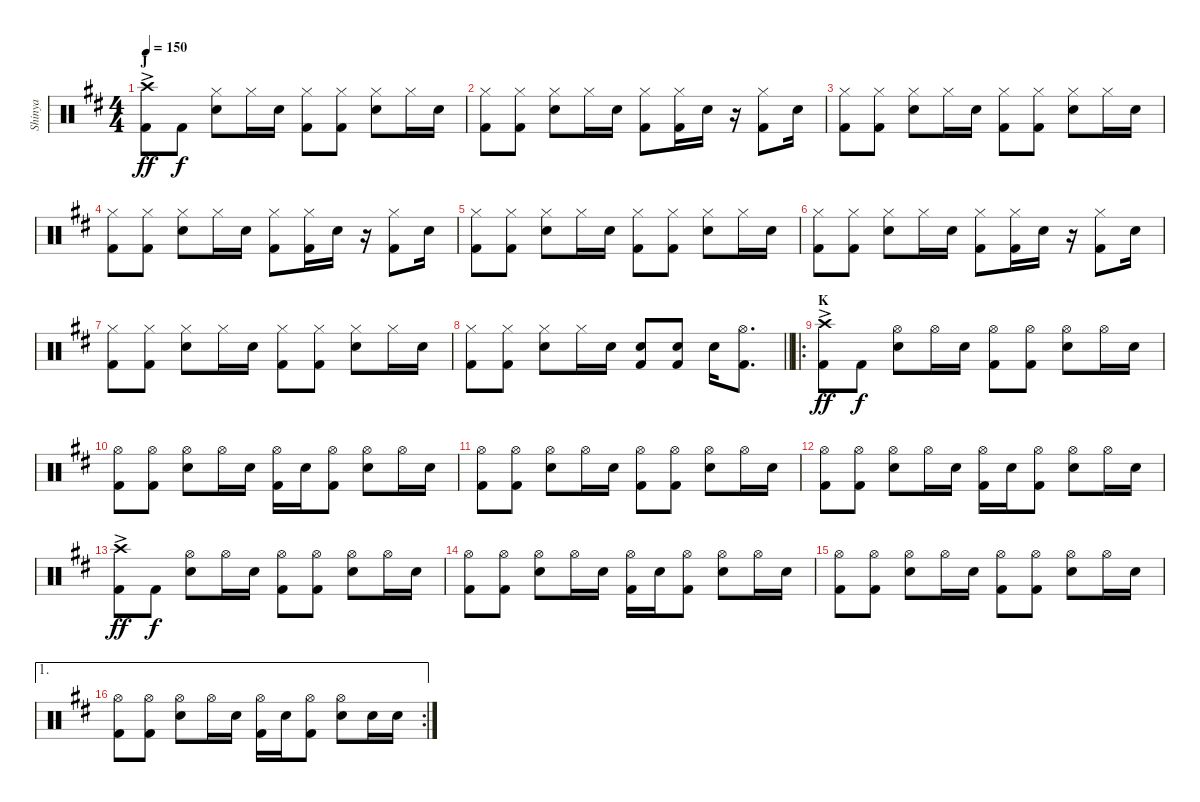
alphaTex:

\track ("Shinya" "Shinya") {instrument percussion}
\staff {score}
\articulation defaults
\ts (4 4)
\section ("" "J")
\tempo 150
\clef neutral
\ks d
("Crash high (hit)"{ac} "Kick (hit) 2").8{dy ff} "Kick (hit) 2".8{dy f} ("Hi-Hat (closed)" "Snare (hit) 2").8 "Hi-Hat (closed)".16 "Snare (hit) 2".16 ("Hi-Hat (closed)" "Kick (hit) 2").8 ("Hi-Hat (closed)" "Kick (hit) 2").8 ("Hi-Hat (closed)" "Snare (hit) 2").8 "Hi-Hat (closed)".16 "Snare (hit) 2".16 |
("Hi-Hat (closed)" "Kick (hit) 2").8 ("Hi-Hat (closed)" "Kick (hit) 2").8 ("Hi-Hat (closed)" "Snare (hit) 2").8 "Hi-Hat (closed)".16 "Snare (hit) 2".16 ("Hi-Hat (closed)" "Kick (hit) 2").8 ("Hi-Hat (closed)" "Kick (hit) 2").16 "Snare (hit) 2".16 r.16 ("Hi-Hat (closed)" "Kick (hit) 2").8 "Snare (hit) 2".16 |
("Hi-Hat (closed)" "Kick (hit) 2").8 ("Hi-Hat (closed)" "Kick (hit) 2").8 ("Hi-Hat (closed)" "Snare (hit) 2").8 "Hi-Hat (closed)".16 "Snare (hit) 2".16 ("Hi-Hat (closed)" "Kick (hit) 2").8 ("Hi-Hat (closed)" "Kick (hit) 2").8 ("Hi-Hat (closed)" "Snare (hit) 2").8 "Hi-Hat (closed)".16 "Snare (hit) 2".16 |
("Hi-Hat (closed)" "Kick (hit) 2").8 ("Hi-Hat (closed)" "Kick (hit) 2").8 ("Hi-Hat (closed)" "Snare (hit) 2").8 "Hi-Hat (closed)".16 "Snare (hit) 2".16 ("Hi-Hat (closed)" "Kick (hit) 2").8 ("Hi-Hat (closed)" "Kick (hit) 2").16 "Snare (hit) 2".16 r.16 ("Hi-Hat (closed)" "Kick (hit) 2").8 "Snare (hit) 2".16 |
("Hi-Hat (closed)" "Kick (hit) 2").8 ("Hi-Hat (closed)" "Kick (hit) 2").8 ("Hi-Hat (closed)" "Snare (hit) 2").8 "Hi-Hat (closed)".16 "Snare (hit) 2".16 ("Hi-Hat (closed)" "Kick (hit) 2").8 ("Hi-Hat (closed)" "Kick (hit) 2").8 ("Hi-Hat (closed)" "Snare (hit) 2").8 "Hi-Hat (closed)".16 "Snare (hit) 2".16 |
("Hi-Hat (closed)" "Kick (hit) 2").8 ("Hi-Hat (closed)" "Kick (hit) 2").8 ("Hi-Hat (closed)" "Snare (hit) 2").8 "Hi-Hat (closed)".16 "Snare (hit) 2".16 ("Hi-Hat (closed)" "Kick (hit) 2").8 ("Hi-Hat (closed)" "Kick (hit) 2").16 "Snare (hit) 2".16 r.16 ("Hi-Hat (closed)" "Kick (hit) 2").8 "Snare (hit) 2".16 |
("Hi-Hat (closed)" "Kick (hit) 2").8 ("Hi-Hat (closed)" "Kick (hit) 2").8 ("Hi-Hat (closed)" "Snare (hit) 2").8 "Hi-Hat (closed)".16 "Snare (hit) 2".16 ("Hi-Hat (closed)" "Kick (hit) 2").8 ("Hi-Hat (closed)" "Kick (hit) 2").8 ("Hi-Hat (closed)" "Snare (hit) 2").8 "Hi-Hat (closed)".16 "Snare (hit) 2".16 |
\barLineRight lightlight
("Hi-Hat (closed)" "Kick (hit) 2").8 ("Hi-Hat (closed)" "Kick (hit) 2").8 ("Hi-Hat (closed)" "Snare (hit) 2").8 "Hi-Hat (closed)".16 "Snare (hit) 2".16 ("Snare (hit) 2" "Kick (hit) 2").8 ("Snare (hit) 2" "Kick (hit) 2").8 "Snare (hit) 2".16 ("Hi-Hat (open)" "Kick (hit) 2").8{d} |
\ro
\section ("" "K")
("Crash high (hit)"{ac} "Kick (hit) 2").8{dy ff} "Kick (hit) 2".8{dy f} ("Hi-Hat (open)" "Snare (hit) 2").8 "Hi-Hat (open)".16 "Snare (hit) 2".16 ("Hi-Hat (open)" "Kick (hit) 2").8 ("Hi-Hat (open)" "Kick (hit) 2").8 ("Hi-Hat (open)" "Snare (hit) 2").8 "Hi-Hat (open)".16 "Snare (hit) 2".16 |
("Hi-Hat (open)" "Kick (hit) 2").8 ("Hi-Hat (open)" "Kick (hit) 2").8 ("Hi-Hat (open)" "Snare (hit) 2").8 "Hi-Hat (open)".16 "Snare (hit) 2".16 ("Hi-Hat (open)" "Kick (hit) 2").16 "Snare (hit) 2".16 ("Hi-Hat (open)" "Kick (hit) 2").8 ("Hi-Hat (open)" "Snare (hit) 2").8 "Hi-Hat (open)".16 "Snare (hit) 2".16 |
("Hi-Hat (open)" "Kick (hit) 2").8 ("Hi-Hat (open)" "Kick (hit) 2").8 ("Hi-Hat (open)" "Snare (hit) 2").8 "Hi-Hat (open)".16 "Snare (hit) 2".16 ("Hi-Hat (open)" "Kick (hit) 2").8 ("Hi-Hat (open)" "Kick (hit) 2").8 ("Hi-Hat (open)" "Snare (hit) 2").8 "Hi-Hat (open)".16 "Snare (hit) 2".16 |
("Hi-Hat (open)" "Kick (hit) 2").8 ("Hi-Hat (open)" "Kick (hit) 2").8 ("Hi-Hat (open)" "Snare (hit) 2").8 "Hi-Hat (open)".16 "Snare (hit) 2".16 ("Hi-Hat (open)" "Kick (hit) 2").16 "Snare (hit) 2".16 ("Hi-Hat (open)" "Kick (hit) 2").8 ("Hi-Hat (open)" "Snare (hit) 2").8 "Hi-Hat (open)".16 "Snare (hit) 2".16 |
("Crash high (hit)"{ac} "Kick (hit) 2").8{dy ff} "Kick (hit) 2".8{dy f} ("Hi-Hat (open)" "Snare (hit) 2").8 "Hi-Hat (open)".16 "Snare (hit) 2".16 ("Hi-Hat (open)" "Kick (hit) 2").8 ("Hi-Hat (open)" "Kick (hit) 2").8 ("Hi-Hat (open)" "Snare (hit) 2").8 "Hi-Hat (open)".16 "Snare (hit) 2".16 |
("Hi-Hat (open)" "Kick (hit) 2").8 ("Hi-Hat (open)" "Kick (hit) 2").8 ("Hi-Hat (open)" "Snare (hit) 2").8 "Hi-Hat (open)".16 "Snare (hit) 2".16 ("Hi-Hat (open)" "Kick (hit) 2").16 "Snare (hit) 2".16 ("Hi-Hat (open)" "Kick (hit) 2").8 ("Hi-Hat (open)" "Snare (hit) 2").8 "Hi-Hat (open)".16 "Snare (hit) 2".16 |
("Hi-Hat (open)" "Kick (hit) 2").8 ("Hi-Hat (open)" "Kick (hit) 2").8 ("Hi-Hat (open)" "Snare (hit) 2").8 "Hi-Hat (open)".16 "Snare (hit) 2".16 ("Hi-Hat (open)" "Kick (hit) 2").8 ("Hi-Hat (open)" "Kick (hit) 2").8 ("Hi-Hat (open)" "Snare (hit) 2").8 "Hi-Hat (open)".16 "Snare (hit) 2".16 |
\ae 1
\rc 2
("Hi-Hat (open)" "Kick (hit) 2").8 ("Hi-Hat (open)" "Kick (hit) 2").8 ("Hi-Hat (open)" "Snare (hit) 2").8 "Hi-Hat (open)".16 "Snare (hit) 2".16 ("Hi-Hat (open)" "Kick (hit) 2").16 "Snare (hit) 2".16 ("Hi-Hat (open)" "Kick (hit) 2").8 ("Hi-Hat (open)" "Snare (hit) 2").8 "Snare (hit) 2".16 "Snare (hit) 2".16
